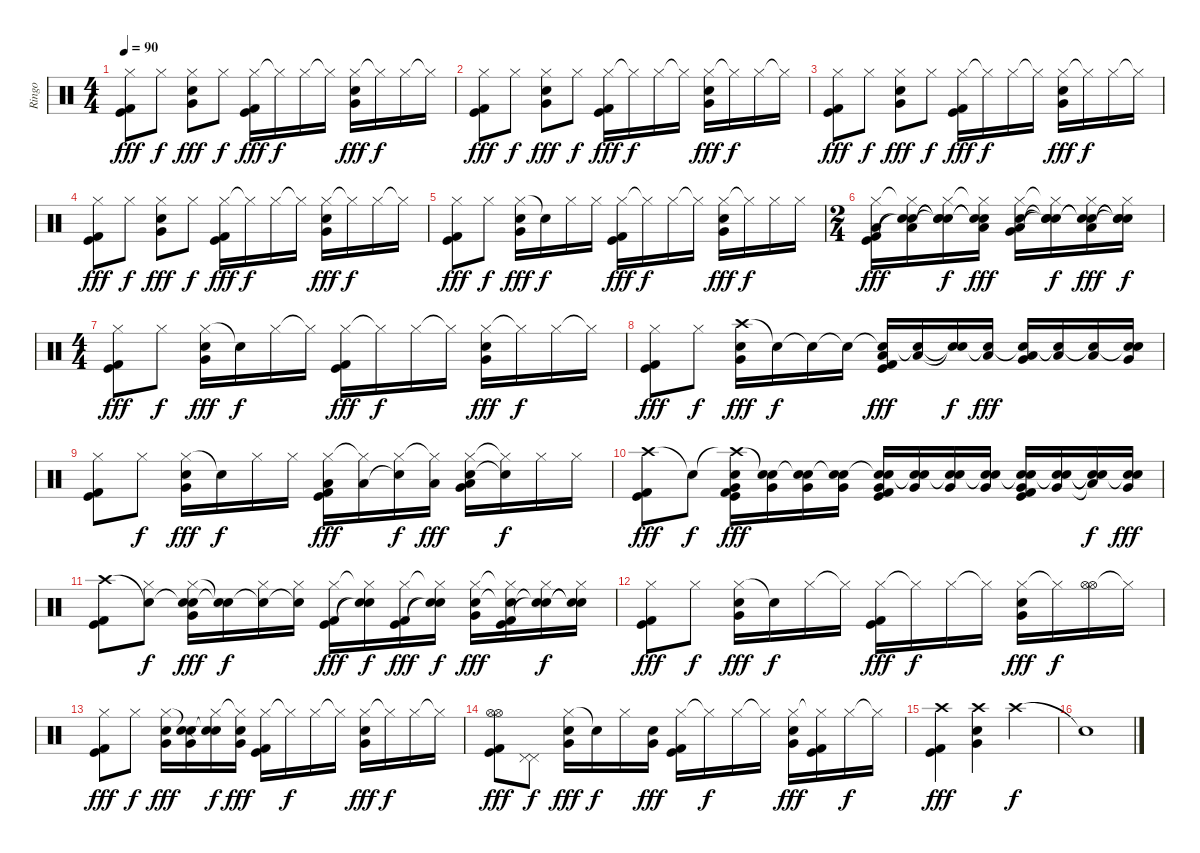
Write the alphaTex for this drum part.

\track ("Ringo" "Ringo") {instrument percussion}
\staff {score}
\articulation defaults
\ts (4 4)
\tempo 90
\clef neutral
\ks c
("Hi-Hat (closed)" "Kick (hit) 2" "Kick (hit)").8{dy fff} "Hi-Hat (closed)".8{dy f} ("Hi-Hat (closed)" "Snare (hit) 2" "Very Low Tom (hit)").8{dy fff} "Hi-Hat (closed)".8{dy f} ("Hi-Hat (closed)" "Kick (hit) 2" "Kick (hit)").16{dy fff} "Hi-Hat (closed)"{t}.16{dy f} "Hi-Hat (closed)".16 "Hi-Hat (closed)"{t}.16 ("Hi-Hat (closed)" "Snare (hit) 2" "Very Low Tom (hit)").16{dy fff} "Hi-Hat (closed)"{t}.16{dy f} "Hi-Hat (closed)".16 "Hi-Hat (closed)"{t}.16 |
("Hi-Hat (closed)" "Kick (hit) 2" "Kick (hit)").8{dy fff} "Hi-Hat (closed)".8{dy f} ("Hi-Hat (closed)" "Snare (hit) 2" "Very Low Tom (hit)").8{dy fff} "Hi-Hat (closed)".8{dy f} ("Hi-Hat (closed)" "Kick (hit) 2" "Kick (hit)").16{dy fff} "Hi-Hat (closed)"{t}.16{dy f} "Hi-Hat (closed)".16 "Hi-Hat (closed)"{t}.16 ("Hi-Hat (closed)" "Snare (hit) 2" "Very Low Tom (hit)").16{dy fff} "Hi-Hat (closed)"{t}.16{dy f} "Hi-Hat (closed)".16 "Hi-Hat (closed)"{t}.16 |
("Hi-Hat (closed)" "Kick (hit) 2" "Kick (hit)").8{dy fff} "Hi-Hat (closed)".8{dy f} ("Hi-Hat (closed)" "Snare (hit) 2" "Very Low Tom (hit)").8{dy fff} "Hi-Hat (closed)".8{dy f} ("Hi-Hat (closed)" "Kick (hit) 2" "Kick (hit)").16{dy fff} "Hi-Hat (closed)"{t}.16{dy f} "Hi-Hat (closed)".16 "Hi-Hat (closed)"{t}.16 ("Hi-Hat (closed)" "Snare (hit) 2" "Very Low Tom (hit)").16{dy fff} "Hi-Hat (closed)"{t}.16{dy f} "Hi-Hat (closed)".16 "Hi-Hat (closed)"{t}.16 |
("Hi-Hat (closed)" "Kick (hit) 2" "Kick (hit)").8{dy fff} "Hi-Hat (closed)".8{dy f} ("Hi-Hat (closed)" "Snare (hit) 2" "Very Low Tom (hit)").8{dy fff} "Hi-Hat (closed)".8{dy f} ("Hi-Hat (closed)" "Kick (hit) 2" "Kick (hit)").16{dy fff} "Hi-Hat (closed)"{t}.16{dy f} "Hi-Hat (closed)".16 "Hi-Hat (closed)"{t}.16 ("Hi-Hat (closed)" "Snare (hit) 2" "Very Low Tom (hit)").16{dy fff} "Hi-Hat (closed)"{t}.16{dy f} "Hi-Hat (closed)".16 "Hi-Hat (closed)"{t}.16 |
("Hi-Hat (closed)" "Kick (hit) 2" "Kick (hit)").8{dy fff} "Hi-Hat (closed)".8{dy f} ("Hi-Hat (closed)" "Snare (hit) 2" "Very Low Tom (hit)").16{dy fff} "Snare (hit)"{t}.16{dy f} "Hi-Hat (closed)".16 "Hi-Hat (closed)".16 ("Hi-Hat (closed)" "Kick (hit) 2" "Kick (hit)").16{dy fff} "Hi-Hat (closed)"{t}.16{dy f} "Hi-Hat (closed)".16 "Hi-Hat (closed)"{t}.16 ("Hi-Hat (closed)" "Snare (hit) 2" "Very Low Tom (hit)").16{dy fff} "Hi-Hat (closed)"{t}.16{dy f} "Hi-Hat (closed)".16 "Hi-Hat (closed)".16 |
\ts (2 4)
("Hi-Hat (closed)" "Kick (hit) 2" "Kick (hit)" "Low Floor Tom (hit)").16{dy fff} ("Hi-Hat (closed)"{t} "Snare (hit)"{t} "Snare (hit)"{t} "Low Floor Tom (hit)").16 ("Hi-Hat (closed)" "Snare (hit)"{t} "Snare (hit)"{t} "Snare (hit)"{t}).16{dy f} ("Hi-Hat (closed)"{t} "Snare (hit)"{t} "Snare (hit)"{t} "Low Floor Tom (hit)").16{dy fff} ("Hi-Hat (closed)" "Snare (hit) 2" "Very Low Tom (hit)" "Low Floor Tom (hit)").16 ("Hi-Hat (closed)"{t} "Snare (hit)"{t} "Snare (hit)"{t} "Snare (hit)"{t}).16{dy f} ("Hi-Hat (closed)" "Snare (hit)"{t} "Snare (hit)"{t} "Low Floor Tom (hit)").16{dy fff} ("Hi-Hat (closed)" "Snare (hit)"{t} "Snare (hit)"{t} "Snare (hit)"{t}).16{dy f} |
\ts (4 4)
("Hi-Hat (closed)" "Kick (hit) 2" "Kick (hit)").8{dy fff} "Hi-Hat (closed)".8{dy f} ("Hi-Hat (closed)" "Snare (hit) 2" "Very Low Tom (hit)").16{dy fff} "Snare (hit)"{t}.16{dy f} "Hi-Hat (closed)".16 "Hi-Hat (closed)"{t}.16 ("Hi-Hat (closed)" "Kick (hit) 2" "Kick (hit)").16{dy fff} "Hi-Hat (closed)"{t}.16{dy f} "Hi-Hat (closed)".16 "Hi-Hat (closed)"{t}.16 ("Hi-Hat (closed)" "Snare (hit) 2" "Very Low Tom (hit)").16{dy fff} "Hi-Hat (closed)"{t}.16{dy f} "Hi-Hat (closed)".16 "Hi-Hat (closed)"{t}.16 |
("Hi-Hat (closed)" "Kick (hit) 2" "Kick (hit)").8{dy fff} "Hi-Hat (closed)".8{dy f} ("Crash high (hit)" "Snare (hit) 2" "Very Low Tom (hit)").16{dy fff} "Snare (hit)"{t}.16{dy f} "Snare (hit)"{t}.16 "Snare (hit)"{t}.16 ("Snare (hit)"{t} "Low Floor Tom (hit)" "Kick (hit) 2" "Kick (hit)").16{dy fff} ("Snare (hit)"{t} "Low Floor Tom (hit)").16 ("Snare (hit)"{t} "Snare (hit)"{t}).16{dy f} ("Snare (hit)"{t} "Low Floor Tom (hit)").16{dy fff} ("Snare (hit)"{t} "Low Floor Tom (hit)" "Very Low Tom (hit)").16 ("Snare (hit)"{t} "Low Floor Tom (hit)").16 ("Snare (hit)"{t} "Low Floor Tom (hit)").16 ("Snare (hit)"{t} "Snare (hit) 2" "Very Low Tom (hit)").16 |
("Hi-Hat (closed)" "Kick (hit) 2" "Kick (hit)").8 "Hi-Hat (closed)".8{dy f} ("Hi-Hat (closed)" "Snare (hit) 2" "Very Low Tom (hit)").16{dy fff} "Snare (hit)"{t}.16{dy f} "Hi-Hat (closed)".16 "Hi-Hat (closed)".16 ("Hi-Hat (closed)" "Kick (hit) 2" "Kick (hit)" "Low Floor Tom (hit)").16{dy fff} ("Hi-Hat (closed)"{t} "Low Floor Tom (hit)").16 ("Hi-Hat (closed)" "Snare (hit)"{t}).16{dy f} ("Hi-Hat (closed)"{t} "Low Floor Tom (hit)").16{dy fff} ("Hi-Hat (closed)" "Snare (hit) 2" "Very Low Tom (hit)" "Low Floor Tom (hit)").16 ("Hi-Hat (closed)"{t} "Snare (hit)"{t}).16{dy f} "Hi-Hat (closed)".16 "Hi-Hat (closed)".16 |
("Crash high (hit)" "Kick (hit) 2" "Kick (hit)").8{dy fff} "Snare (hit)"{t}.8{dy f} ("Crash high (hit)"{t} "Snare (hit) 2" "Very Low Tom (hit)" "Kick (hit) 2" "Kick (hit)").16{dy fff} ("Snare (hit)"{t} "Snare (hit) 2" "Very Low Tom (hit)").16 ("Snare (hit)"{t} "Snare (hit) 2" "Very Low Tom (hit)").16 ("Snare (hit)"{t} "Snare (hit) 2" "Very Low Tom (hit)").16 ("Snare (hit)"{t} "Snare (hit) 2" "Very Low Tom (hit)" "Kick (hit) 2" "Kick (hit)").16 ("Snare (hit)"{t} "Snare (hit) 2" "Very Low Tom (hit)").16 ("Snare (hit)"{t} "Snare (hit) 2" "Very Low Tom (hit)").16 ("Snare (hit)"{t} "Snare (hit) 2" "Very Low Tom (hit)").16 ("Snare (hit)"{t} "Snare (hit) 2" "Very Low Tom (hit)" "Kick (hit) 2" "Kick (hit)").16 ("Snare (hit)"{t} "Snare (hit) 2" "Very Low Tom (hit)").16 ("Snare (hit)"{t} "Snare (hit)"{t} "Low Floor Tom (hit)"{t}).16{dy f} ("Snare (hit)"{t} "Snare (hit) 2" "Very Low Tom (hit)").16{dy fff} |
("Crash high (hit)" "Kick (hit) 2" "Kick (hit)").8 ("Snare (hit)"{t} "Hi-Hat (closed)").8{dy f} ("Snare (hit)"{t} "Hi-Hat (closed)" "Snare (hit) 2" "Very Low Tom (hit)").16{dy fff} ("Snare (hit)"{t} "Snare (hit)"{t}).16{dy f} ("Snare (hit)"{t} "Hi-Hat (closed)").16 ("Snare (hit)"{t} "Hi-Hat (closed)").16 ("Hi-Hat (closed)" "Kick (hit) 2" "Kick (hit)").16{dy fff} ("Hi-Hat (closed)"{t} "Snare (hit)"{t} "Snare (hit)"{t}).16{dy f} ("Hi-Hat (closed)" "Kick (hit) 2" "Kick (hit)").16{dy fff} ("Hi-Hat (closed)"{t} "Snare (hit)"{t} "Snare (hit)"{t}).16{dy f} ("Hi-Hat (closed)" "Snare (hit) 2" "Very Low Tom (hit)").16{dy fff} ("Hi-Hat (closed)"{t} "Snare (hit)"{t} "Kick (hit) 2" "Kick (hit)").16 ("Hi-Hat (closed)" "Snare (hit)"{t} "Snare (hit)"{t}).16{dy f} ("Hi-Hat (closed)" "Snare (hit)"{t} "Snare (hit)"{t}).16 |
("Hi-Hat (closed)" "Kick (hit) 2" "Kick (hit)").8{dy fff} "Hi-Hat (closed)".8{dy f} ("Hi-Hat (closed)" "Snare (hit) 2" "Very Low Tom (hit)").16{dy fff} "Snare (hit)"{t}.16{dy f} "Hi-Hat (closed)".16 "Hi-Hat (closed)"{t}.16 ("Hi-Hat (closed)" "Kick (hit) 2" "Kick (hit)").16{dy fff} "Hi-Hat (closed)"{t}.16{dy f} "Hi-Hat (closed)".16 "Hi-Hat (closed)"{t}.16 ("Hi-Hat (closed)" "Snare (hit) 2" "Very Low Tom (hit)").16{dy fff} "Hi-Hat (closed)"{t}.16{dy f} ("Hi-Hat (open)" "Hi-Hat (open)").16 "Hi-Hat (closed)"{t}.16 |
("Hi-Hat (closed)" "Kick (hit) 2" "Kick (hit)").8{dy fff} "Hi-Hat (closed)".8{dy f} ("Hi-Hat (closed)" "Snare (hit) 2" "Very Low Tom (hit)").16{dy fff} ("Snare (hit)"{t} "Snare (hit) 2" "Very Low Tom (hit)").16 ("Hi-Hat (closed)" "Snare (hit)"{t} "Snare (hit)"{t}).16{dy f} ("Hi-Hat (closed)"{t} "Snare (hit) 2" "Very Low Tom (hit)").16{dy fff} ("Hi-Hat (closed)" "Kick (hit) 2" "Kick (hit)").16 "Hi-Hat (closed)"{t}.16{dy f} "Hi-Hat (closed)".16 "Hi-Hat (closed)"{t}.16 ("Hi-Hat (closed)" "Snare (hit) 2" "Very Low Tom (hit)").16{dy fff} "Hi-Hat (closed)"{t}.16{dy f} "Hi-Hat (closed)".16 "Hi-Hat (closed)"{t}.16 |
("Hi-Hat (open)" "Hi-Hat (open)" "Kick (hit) 2" "Kick (hit)").8{dy fff} ("Pedal Hi-Hat (hit)" "Pedal Hi-Hat (hit)").8{dy f} ("Hi-Hat (closed)" "Snare (hit) 2" "Very Low Tom (hit)").16{dy fff} "Snare (hit)"{t}.16{dy f} "Hi-Hat (closed)".16 ("Snare (hit) 2" "Very Low Tom (hit)").16{dy fff} ("Hi-Hat (closed)" "Kick (hit) 2" "Kick (hit)").16 "Hi-Hat (closed)"{t}.16{dy f} "Hi-Hat (closed)".16 "Hi-Hat (closed)"{t}.16 ("Hi-Hat (closed)" "Snare (hit) 2" "Very Low Tom (hit)").16{dy fff} ("Hi-Hat (closed)"{t} "Kick (hit) 2" "Kick (hit)").16 "Hi-Hat (closed)".16{dy f} "Hi-Hat (closed)"{t}.16 |
("Crash high (hit)" "Kick (hit) 2" "Kick (hit)").4{dy fff} ("Crash high (hit)" "Snare (hit) 2" "Very Low Tom (hit)").4 "Crash high (hit)".2{dy f} |
"Snare (hit)"{t}.1
